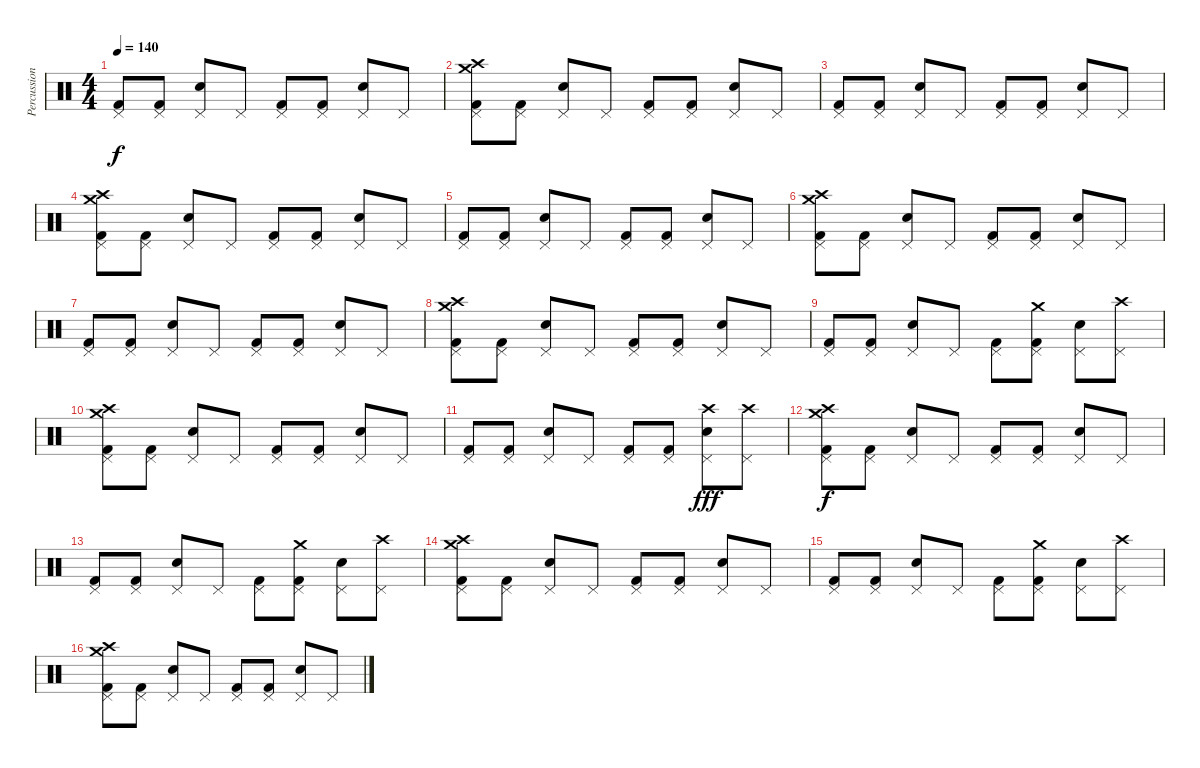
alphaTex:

\track ("Percussion" "Percussion") {instrument percussion}
\staff {score}
\articulation defaults
\ts (4 4)
\tempo 140
\clef neutral
\ks c
("Pedal Hi-Hat (hit)" "Kick (hit) 2").8{dy f} ("Pedal Hi-Hat (hit)" "Kick (hit) 2").8 ("Pedal Hi-Hat (hit)" "Electric Snare (hit)").8 "Pedal Hi-Hat (hit)".8 ("Pedal Hi-Hat (hit)" "Kick (hit) 2").8 ("Pedal Hi-Hat (hit)" "Kick (hit) 2").8 ("Pedal Hi-Hat (hit)" "Electric Snare (hit)").8 "Pedal Hi-Hat (hit)".8 |
("Pedal Hi-Hat (hit)" "Kick (hit) 2" "Crash high (hit)" "Crash medium (hit)").8 ("Pedal Hi-Hat (hit)" "Kick (hit) 2").8 ("Pedal Hi-Hat (hit)" "Electric Snare (hit)").8 "Pedal Hi-Hat (hit)".8 ("Pedal Hi-Hat (hit)" "Kick (hit) 2").8 ("Pedal Hi-Hat (hit)" "Kick (hit) 2").8 ("Pedal Hi-Hat (hit)" "Electric Snare (hit)").8 "Pedal Hi-Hat (hit)".8 |
("Pedal Hi-Hat (hit)" "Kick (hit) 2").8 ("Pedal Hi-Hat (hit)" "Kick (hit) 2").8 ("Pedal Hi-Hat (hit)" "Electric Snare (hit)").8 "Pedal Hi-Hat (hit)".8 ("Pedal Hi-Hat (hit)" "Kick (hit) 2").8 ("Pedal Hi-Hat (hit)" "Kick (hit) 2").8 ("Pedal Hi-Hat (hit)" "Electric Snare (hit)").8 "Pedal Hi-Hat (hit)".8 |
("Pedal Hi-Hat (hit)" "Kick (hit) 2" "Crash high (hit)" "Crash medium (hit)").8 ("Pedal Hi-Hat (hit)" "Kick (hit) 2").8 ("Pedal Hi-Hat (hit)" "Electric Snare (hit)").8 "Pedal Hi-Hat (hit)".8 ("Pedal Hi-Hat (hit)" "Kick (hit) 2").8 ("Pedal Hi-Hat (hit)" "Kick (hit) 2").8 ("Pedal Hi-Hat (hit)" "Electric Snare (hit)").8 "Pedal Hi-Hat (hit)".8 |
("Pedal Hi-Hat (hit)" "Kick (hit) 2").8 ("Pedal Hi-Hat (hit)" "Kick (hit) 2").8 ("Pedal Hi-Hat (hit)" "Electric Snare (hit)").8 "Pedal Hi-Hat (hit)".8 ("Pedal Hi-Hat (hit)" "Kick (hit) 2").8 ("Pedal Hi-Hat (hit)" "Kick (hit) 2").8 ("Pedal Hi-Hat (hit)" "Electric Snare (hit)").8 "Pedal Hi-Hat (hit)".8 |
("Pedal Hi-Hat (hit)" "Kick (hit) 2" "Crash high (hit)" "Crash medium (hit)").8 ("Pedal Hi-Hat (hit)" "Kick (hit) 2").8 ("Pedal Hi-Hat (hit)" "Electric Snare (hit)").8 "Pedal Hi-Hat (hit)".8 ("Pedal Hi-Hat (hit)" "Kick (hit) 2").8 ("Pedal Hi-Hat (hit)" "Kick (hit) 2").8 ("Pedal Hi-Hat (hit)" "Electric Snare (hit)").8 "Pedal Hi-Hat (hit)".8 |
("Pedal Hi-Hat (hit)" "Kick (hit) 2").8 ("Pedal Hi-Hat (hit)" "Kick (hit) 2").8 ("Pedal Hi-Hat (hit)" "Electric Snare (hit)").8 "Pedal Hi-Hat (hit)".8 ("Pedal Hi-Hat (hit)" "Kick (hit) 2").8 ("Pedal Hi-Hat (hit)" "Kick (hit) 2").8 ("Pedal Hi-Hat (hit)" "Electric Snare (hit)").8 "Pedal Hi-Hat (hit)".8 |
("Pedal Hi-Hat (hit)" "Kick (hit) 2" "Crash high (hit)" "Crash medium (hit)").8 ("Pedal Hi-Hat (hit)" "Kick (hit) 2").8 ("Pedal Hi-Hat (hit)" "Electric Snare (hit)").8 "Pedal Hi-Hat (hit)".8 ("Pedal Hi-Hat (hit)" "Kick (hit) 2").8 ("Pedal Hi-Hat (hit)" "Kick (hit) 2").8 ("Pedal Hi-Hat (hit)" "Electric Snare (hit)").8 "Pedal Hi-Hat (hit)".8 |
("Pedal Hi-Hat (hit)" "Kick (hit) 2").8 ("Pedal Hi-Hat (hit)" "Kick (hit) 2").8 ("Pedal Hi-Hat (hit)" "Electric Snare (hit)").8 "Pedal Hi-Hat (hit)".8 ("Pedal Hi-Hat (hit)" "Kick (hit) 2").8 ("Pedal Hi-Hat (hit)" "Kick (hit) 2" "Crash medium (hit)").8 ("Pedal Hi-Hat (hit)" "Electric Snare (hit)").8 ("Pedal Hi-Hat (hit)" "Crash high (hit)").8 |
("Pedal Hi-Hat (hit)" "Kick (hit) 2" "Crash high (hit)" "Crash medium (hit)").8 ("Pedal Hi-Hat (hit)" "Kick (hit) 2").8 ("Pedal Hi-Hat (hit)" "Electric Snare (hit)").8 "Pedal Hi-Hat (hit)".8 ("Pedal Hi-Hat (hit)" "Kick (hit) 2").8 ("Pedal Hi-Hat (hit)" "Kick (hit) 2").8 ("Pedal Hi-Hat (hit)" "Electric Snare (hit)").8 "Pedal Hi-Hat (hit)".8 |
("Pedal Hi-Hat (hit)" "Kick (hit) 2").8 ("Pedal Hi-Hat (hit)" "Kick (hit) 2").8 ("Pedal Hi-Hat (hit)" "Electric Snare (hit)").8 "Pedal Hi-Hat (hit)".8 ("Pedal Hi-Hat (hit)" "Kick (hit) 2").8 ("Pedal Hi-Hat (hit)" "Kick (hit) 2").8 ("Pedal Hi-Hat (hit)" "Electric Snare (hit)" "Crash high (hit)").8{dy fff} ("Pedal Hi-Hat (hit)" "Crash high (hit)").8 |
("Pedal Hi-Hat (hit)" "Kick (hit) 2" "Crash high (hit)" "Crash medium (hit)").8{dy f} ("Pedal Hi-Hat (hit)" "Kick (hit) 2").8 ("Pedal Hi-Hat (hit)" "Electric Snare (hit)").8 "Pedal Hi-Hat (hit)".8 ("Pedal Hi-Hat (hit)" "Kick (hit) 2").8 ("Pedal Hi-Hat (hit)" "Kick (hit) 2").8 ("Pedal Hi-Hat (hit)" "Electric Snare (hit)").8 "Pedal Hi-Hat (hit)".8 |
("Pedal Hi-Hat (hit)" "Kick (hit) 2").8 ("Pedal Hi-Hat (hit)" "Kick (hit) 2").8 ("Pedal Hi-Hat (hit)" "Electric Snare (hit)").8 "Pedal Hi-Hat (hit)".8 ("Pedal Hi-Hat (hit)" "Kick (hit) 2").8 ("Pedal Hi-Hat (hit)" "Kick (hit) 2" "Crash medium (hit)").8 ("Pedal Hi-Hat (hit)" "Electric Snare (hit)").8 ("Pedal Hi-Hat (hit)" "Crash high (hit)").8 |
("Pedal Hi-Hat (hit)" "Kick (hit) 2" "Crash high (hit)" "Crash medium (hit)").8 ("Pedal Hi-Hat (hit)" "Kick (hit) 2").8 ("Pedal Hi-Hat (hit)" "Electric Snare (hit)").8 "Pedal Hi-Hat (hit)".8 ("Pedal Hi-Hat (hit)" "Kick (hit) 2").8 ("Pedal Hi-Hat (hit)" "Kick (hit) 2").8 ("Pedal Hi-Hat (hit)" "Electric Snare (hit)").8 "Pedal Hi-Hat (hit)".8 |
("Pedal Hi-Hat (hit)" "Kick (hit) 2").8 ("Pedal Hi-Hat (hit)" "Kick (hit) 2").8 ("Pedal Hi-Hat (hit)" "Electric Snare (hit)").8 "Pedal Hi-Hat (hit)".8 ("Pedal Hi-Hat (hit)" "Kick (hit) 2").8 ("Pedal Hi-Hat (hit)" "Kick (hit) 2" "Crash medium (hit)").8 ("Pedal Hi-Hat (hit)" "Electric Snare (hit)").8 ("Pedal Hi-Hat (hit)" "Crash high (hit)").8 |
("Pedal Hi-Hat (hit)" "Kick (hit) 2" "Crash high (hit)" "Crash medium (hit)").8 ("Pedal Hi-Hat (hit)" "Kick (hit) 2").8 ("Pedal Hi-Hat (hit)" "Electric Snare (hit)").8 "Pedal Hi-Hat (hit)".8 ("Pedal Hi-Hat (hit)" "Kick (hit) 2").8 ("Pedal Hi-Hat (hit)" "Kick (hit) 2").8 ("Pedal Hi-Hat (hit)" "Electric Snare (hit)").8 "Pedal Hi-Hat (hit)".8
